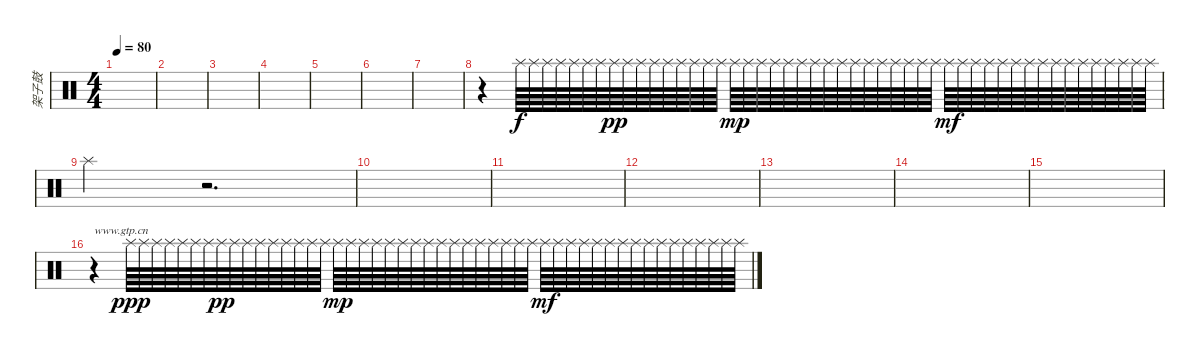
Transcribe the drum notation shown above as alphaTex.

\track ("架子鼓" "架子鼓") {instrument percussion}
\staff {score}
\articulation defaults
\ts (4 4)
\tempo 80
\clef neutral
\ks c
|
|
|
|
|
|
|
r.4 "Splash (hit)".64 "Splash (hit)".64 "Splash (hit)".64 "Splash (hit)".64 "Splash (hit)".64 "Splash (hit)".64 "Splash (hit)".64 "Splash (hit)".64{dy pp} "Splash (hit)".64 "Splash (hit)".64 "Splash (hit)".64 "Splash (hit)".64 "Splash (hit)".64 "Splash (hit)".64 "Splash (hit)".64 "Splash (hit)".64 "Splash (hit)".64{dy mp} "Splash (hit)".64 "Splash (hit)".64 "Splash (hit)".64 "Splash (hit)".64 "Splash (hit)".64 "Splash (hit)".64 "Splash (hit)".64 "Splash (hit)".64 "Splash (hit)".64 "Splash (hit)".64 "Splash (hit)".64 "Splash (hit)".64 "Splash (hit)".64 "Splash (hit)".64 "Splash (hit)".64 "Splash (hit)".64{dy mf} "Splash (hit)".64 "Splash (hit)".64 "Splash (hit)".64 "Splash (hit)".64 "Splash (hit)".64 "Splash (hit)".64 "Splash (hit)".64 "Splash (hit)".64 "Splash (hit)".64 "Splash (hit)".64 "Splash (hit)".64 "Splash (hit)".64 "Splash (hit)".64 "Splash (hit)".64 "Splash (hit)".64 |
"Splash (hit)".4 r.2{d} |
|
|
|
|
|
|
r.4{txt "www.gtp.cn"} "Splash (hit)".64{dy ppp} "Splash (hit)".64 "Splash (hit)".64 "Splash (hit)".64 "Splash (hit)".64 "Splash (hit)".64 "Splash (hit)".64 "Splash (hit)".64{dy pp} "Splash (hit)".64 "Splash (hit)".64 "Splash (hit)".64 "Splash (hit)".64 "Splash (hit)".64 "Splash (hit)".64 "Splash (hit)".64 "Splash (hit)".64 "Splash (hit)".64{dy mp} "Splash (hit)".64 "Splash (hit)".64 "Splash (hit)".64 "Splash (hit)".64 "Splash (hit)".64 "Splash (hit)".64 "Splash (hit)".64 "Splash (hit)".64 "Splash (hit)".64 "Splash (hit)".64 "Splash (hit)".64 "Splash (hit)".64 "Splash (hit)".64 "Splash (hit)".64 "Splash (hit)".64 "Splash (hit)".64{dy mf} "Splash (hit)".64 "Splash (hit)".64 "Splash (hit)".64 "Splash (hit)".64 "Splash (hit)".64 "Splash (hit)".64 "Splash (hit)".64 "Splash (hit)".64 "Splash (hit)".64 "Splash (hit)".64 "Splash (hit)".64 "Splash (hit)".64 "Splash (hit)".64 "Splash (hit)".64 "Splash (hit)".64
